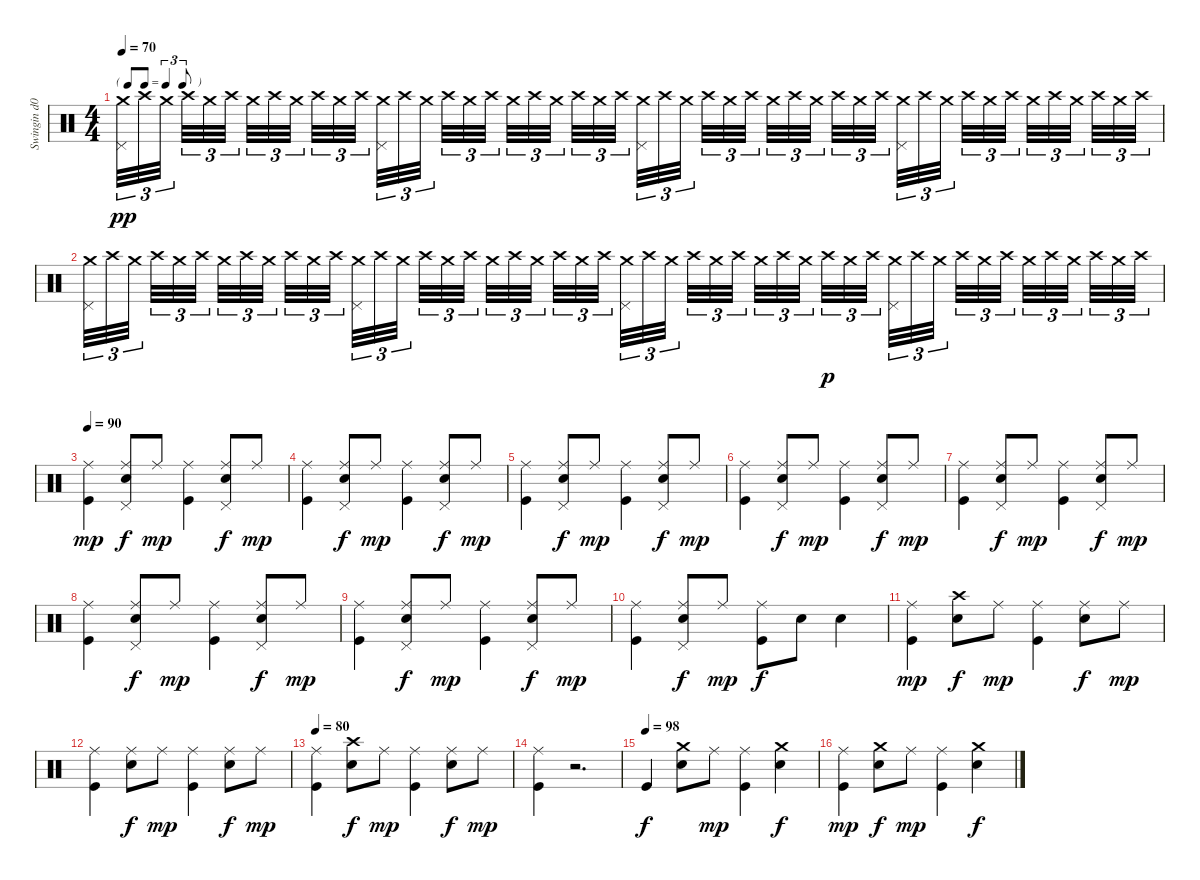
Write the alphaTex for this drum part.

\track ("Swingin d00d" "Swingin d0") {instrument percussion}
\staff {score}
\articulation defaults
\ts (4 4)
\tf triplet8th
\tempo 70
\clef neutral
\ks c
("Pedal Hi-Hat (hit)" "Crash medium (hit)").32{tu (3 2) dy pp} "Crash high (hit)".32{tu (3 2)} "Crash medium (hit)".32{tu (3 2)} "Crash high (hit)".32{tu (3 2)} "Crash medium (hit)".32{tu (3 2)} "Crash high (hit)".32{tu (3 2)} "Crash medium (hit)".32{tu (3 2)} "Crash high (hit)".32{tu (3 2)} "Crash medium (hit)".32{tu (3 2)} "Crash high (hit)".32{tu (3 2)} "Crash medium (hit)".32{tu (3 2)} "Crash high (hit)".32{tu (3 2)} ("Pedal Hi-Hat (hit)" "Crash medium (hit)").32{tu (3 2)} "Crash high (hit)".32{tu (3 2)} "Crash medium (hit)".32{tu (3 2)} "Crash high (hit)".32{tu (3 2)} "Crash medium (hit)".32{tu (3 2)} "Crash high (hit)".32{tu (3 2)} "Crash medium (hit)".32{tu (3 2)} "Crash high (hit)".32{tu (3 2)} "Crash medium (hit)".32{tu (3 2)} "Crash high (hit)".32{tu (3 2)} "Crash medium (hit)".32{tu (3 2)} "Crash high (hit)".32{tu (3 2)} ("Pedal Hi-Hat (hit)" "Crash medium (hit)").32{tu (3 2)} "Crash high (hit)".32{tu (3 2)} "Crash medium (hit)".32{tu (3 2)} "Crash high (hit)".32{tu (3 2)} "Crash medium (hit)".32{tu (3 2)} "Crash high (hit)".32{tu (3 2)} "Crash medium (hit)".32{tu (3 2)} "Crash high (hit)".32{tu (3 2)} "Crash medium (hit)".32{tu (3 2)} "Crash high (hit)".32{tu (3 2)} "Crash medium (hit)".32{tu (3 2)} "Crash high (hit)".32{tu (3 2)} ("Pedal Hi-Hat (hit)" "Crash medium (hit)").32{tu (3 2)} "Crash high (hit)".32{tu (3 2)} "Crash medium (hit)".32{tu (3 2)} "Crash high (hit)".32{tu (3 2)} "Crash medium (hit)".32{tu (3 2)} "Crash high (hit)".32{tu (3 2)} "Crash medium (hit)".32{tu (3 2)} "Crash high (hit)".32{tu (3 2)} "Crash medium (hit)".32{tu (3 2)} "Crash high (hit)".32{tu (3 2)} "Crash medium (hit)".32{tu (3 2)} "Crash high (hit)".32{tu (3 2)} |
("Pedal Hi-Hat (hit)" "Crash medium (hit)").32{tu (3 2)} "Crash high (hit)".32{tu (3 2)} "Crash medium (hit)".32{tu (3 2)} "Crash high (hit)".32{tu (3 2)} "Crash medium (hit)".32{tu (3 2)} "Crash high (hit)".32{tu (3 2)} "Crash medium (hit)".32{tu (3 2)} "Crash high (hit)".32{tu (3 2)} "Crash medium (hit)".32{tu (3 2)} "Crash high (hit)".32{tu (3 2)} "Crash medium (hit)".32{tu (3 2)} "Crash high (hit)".32{tu (3 2)} ("Pedal Hi-Hat (hit)" "Crash medium (hit)").32{tu (3 2)} "Crash high (hit)".32{tu (3 2)} "Crash medium (hit)".32{tu (3 2)} "Crash high (hit)".32{tu (3 2)} "Crash medium (hit)".32{tu (3 2)} "Crash high (hit)".32{tu (3 2)} "Crash medium (hit)".32{tu (3 2)} "Crash high (hit)".32{tu (3 2)} "Crash medium (hit)".32{tu (3 2)} "Crash high (hit)".32{tu (3 2)} "Crash medium (hit)".32{tu (3 2)} "Crash high (hit)".32{tu (3 2)} ("Pedal Hi-Hat (hit)" "Crash medium (hit)").32{tu (3 2)} "Crash high (hit)".32{tu (3 2)} "Crash medium (hit)".32{tu (3 2)} "Crash high (hit)".32{tu (3 2)} "Crash medium (hit)".32{tu (3 2)} "Crash high (hit)".32{tu (3 2)} "Crash medium (hit)".32{tu (3 2)} "Crash high (hit)".32{tu (3 2)} "Crash medium (hit)".32{tu (3 2)} "Crash high (hit)".32{tu (3 2) dy p} "Crash medium (hit)".32{tu (3 2)} "Crash high (hit)".32{tu (3 2)} ("Pedal Hi-Hat (hit)" "Crash medium (hit)").32{tu (3 2)} "Crash high (hit)".32{tu (3 2)} "Crash medium (hit)".32{tu (3 2)} "Crash high (hit)".32{tu (3 2)} "Crash medium (hit)".32{tu (3 2)} "Crash high (hit)".32{tu (3 2)} "Crash medium (hit)".32{tu (3 2)} "Crash high (hit)".32{tu (3 2)} "Crash medium (hit)".32{tu (3 2)} "Crash high (hit)".32{tu (3 2)} "Crash medium (hit)".32{tu (3 2)} "Crash high (hit)".32{tu (3 2)} |
\tempo 90
("Ride (middle)" "Kick (hit)").4{dy mp} ("Ride (middle)" "Pedal Hi-Hat (hit)" "Electric Snare (hit)").8{dy f} "Ride (middle)".8{dy mp} ("Ride (middle)" "Kick (hit)").4 ("Ride (middle)" "Pedal Hi-Hat (hit)" "Electric Snare (hit)").8{dy f} "Ride (middle)".8{dy mp} |
("Ride (middle)" "Kick (hit)").4 ("Ride (middle)" "Pedal Hi-Hat (hit)" "Electric Snare (hit)").8{dy f} "Ride (middle)".8{dy mp} ("Ride (middle)" "Kick (hit)").4 ("Ride (middle)" "Pedal Hi-Hat (hit)" "Electric Snare (hit)").8{dy f} "Ride (middle)".8{dy mp} |
("Ride (middle)" "Kick (hit)").4 ("Ride (middle)" "Pedal Hi-Hat (hit)" "Electric Snare (hit)").8{dy f} "Ride (middle)".8{dy mp} ("Ride (middle)" "Kick (hit)").4 ("Ride (middle)" "Pedal Hi-Hat (hit)" "Electric Snare (hit)").8{dy f} "Ride (middle)".8{dy mp} |
("Ride (middle)" "Kick (hit)").4 ("Ride (middle)" "Pedal Hi-Hat (hit)" "Electric Snare (hit)").8{dy f} "Ride (middle)".8{dy mp} ("Ride (middle)" "Kick (hit)").4 ("Ride (middle)" "Pedal Hi-Hat (hit)" "Electric Snare (hit)").8{dy f} "Ride (middle)".8{dy mp} |
("Ride (middle)" "Kick (hit)").4 ("Ride (middle)" "Pedal Hi-Hat (hit)" "Electric Snare (hit)").8{dy f} "Ride (middle)".8{dy mp} ("Ride (middle)" "Kick (hit)").4 ("Ride (middle)" "Pedal Hi-Hat (hit)" "Electric Snare (hit)").8{dy f} "Ride (middle)".8{dy mp} |
("Ride (middle)" "Kick (hit)").4 ("Ride (middle)" "Pedal Hi-Hat (hit)" "Electric Snare (hit)").8{dy f} "Ride (middle)".8{dy mp} ("Ride (middle)" "Kick (hit)").4 ("Ride (middle)" "Pedal Hi-Hat (hit)" "Electric Snare (hit)").8{dy f} "Ride (middle)".8{dy mp} |
("Ride (middle)" "Kick (hit)").4 ("Ride (middle)" "Pedal Hi-Hat (hit)" "Electric Snare (hit)").8{dy f} "Ride (middle)".8{dy mp} ("Ride (middle)" "Kick (hit)").4 ("Ride (middle)" "Pedal Hi-Hat (hit)" "Electric Snare (hit)").8{dy f} "Ride (middle)".8{dy mp} |
("Ride (middle)" "Kick (hit)").4 ("Ride (middle)" "Pedal Hi-Hat (hit)" "Electric Snare (hit)").8{dy f} "Ride (middle)".8{dy mp} ("Ride (middle)" "Kick (hit)").8{dy f} "Electric Snare (hit)".8 "Electric Snare (hit)".4 |
("Ride (middle)" "Kick (hit)").4{dy mp} ("Crash high (hit)" "Electric Snare (hit)").8{dy f} "Ride (middle)".8{dy mp} ("Ride (middle)" "Kick (hit)").4 ("Ride (middle)" "Electric Snare (hit)").8{dy f} "Ride (middle)".8{dy mp} |
("Ride (middle)" "Kick (hit)").4 ("Ride (middle)" "Electric Snare (hit)").8{dy f} "Ride (middle)".8{dy mp} ("Ride (middle)" "Kick (hit)").4 ("Ride (middle)" "Electric Snare (hit)").8{dy f} "Ride (middle)".8{dy mp} |
\tempo 80
("Ride (middle)" "Kick (hit)").4 ("Crash high (hit)" "Electric Snare (hit)").8{dy f} "Ride (middle)".8{dy mp} ("Ride (middle)" "Kick (hit)").4 ("Ride (middle)" "Electric Snare (hit)").8{dy f} "Ride (middle)".8{dy mp} |
("Ride (middle)" "Kick (hit)").4 r.2{d} |
\tempo (98)
"Kick (hit)".4{dy f} ("Crash medium (hit)" "Electric Snare (hit)").8 "Ride (middle)".8{dy mp} ("Ride (middle)" "Kick (hit)").4 ("Crash medium (hit)" "Electric Snare (hit)").4{dy f} |
("Ride (middle)" "Kick (hit)").4{dy mp} ("Crash medium (hit)" "Electric Snare (hit)").8{dy f} "Ride (middle)".8{dy mp} ("Ride (middle)" "Kick (hit)").4 ("Crash medium (hit)" "Electric Snare (hit)").4{dy f}
